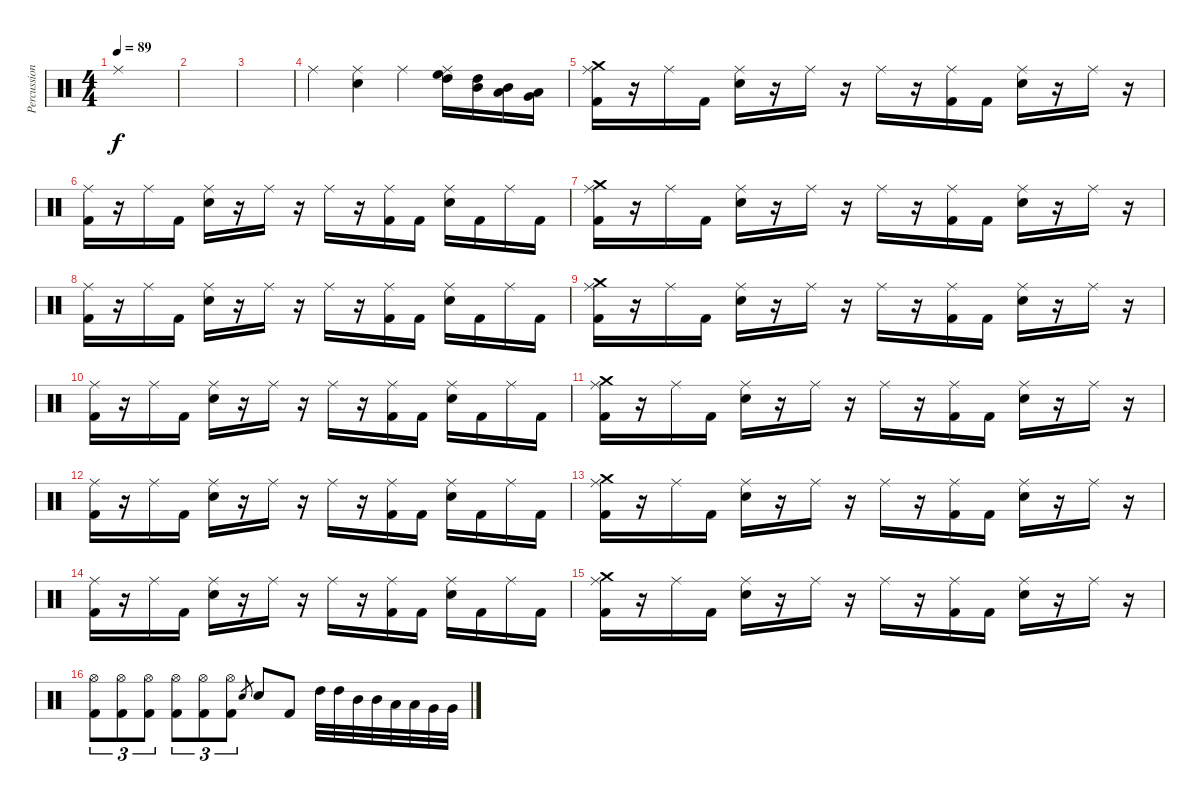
\track ("Percussions" "Percussion") {instrument percussion}
\staff {score}
\articulation defaults
\ts (4 4)
\tempo 89
\clef neutral
\ks c "Ride (middle)".1{dy f}
|
|
|
"Ride (middle)".4 ("Ride (middle)" "Snare (hit) 2").4 "Ride (middle)".4 ("Ride (middle)" "High Tom (hit)" "High Floor Tom (hit)").16 ("Mid Tom (hit)" "High Tom (hit)").16 ("Low Tom (hit)" "Mid Tom (hit)").16 ("Very Low Tom (hit)" "Low Tom (hit)").16 |
("Crash medium (hit)" "Ride (middle)" "Kick (hit) 2").16 r.16 "Ride (middle)".16 "Kick (hit) 2".16 ("Ride (middle)" "Snare (hit) 2").16 r.16 "Ride (middle)".16 r.16 "Ride (middle)".16 r.16 ("Ride (middle)" "Kick (hit) 2").16 "Kick (hit) 2".16 ("Ride (middle)" "Snare (hit) 2").16 r.16 "Ride (middle)".16 r.16 |
("Ride (middle)" "Kick (hit) 2").16 r.16 "Ride (middle)".16 "Kick (hit) 2".16 ("Ride (middle)" "Snare (hit) 2").16 r.16 "Ride (middle)".16 r.16 "Ride (middle)".16 r.16 ("Ride (middle)" "Kick (hit) 2").16 "Kick (hit) 2".16 ("Ride (middle)" "Snare (hit) 2").16 "Kick (hit) 2".16 "Ride (middle)".16 "Kick (hit) 2".16 |
("Crash medium (hit)" "Ride (middle)" "Kick (hit) 2").16 r.16 "Ride (middle)".16 "Kick (hit) 2".16 ("Ride (middle)" "Snare (hit) 2").16 r.16 "Ride (middle)".16 r.16 "Ride (middle)".16 r.16 ("Ride (middle)" "Kick (hit) 2").16 "Kick (hit) 2".16 ("Ride (middle)" "Snare (hit) 2").16 r.16 "Ride (middle)".16 r.16 |
("Ride (middle)" "Kick (hit) 2").16 r.16 "Ride (middle)".16 "Kick (hit) 2".16 ("Ride (middle)" "Snare (hit) 2").16 r.16 "Ride (middle)".16 r.16 "Ride (middle)".16 r.16 ("Ride (middle)" "Kick (hit) 2").16 "Kick (hit) 2".16 ("Ride (middle)" "Snare (hit) 2").16 "Kick (hit) 2".16 "Ride (middle)".16 "Kick (hit) 2".16 |
("Crash medium (hit)" "Ride (middle)" "Kick (hit) 2").16 r.16 "Ride (middle)".16 "Kick (hit) 2".16 ("Ride (middle)" "Snare (hit) 2").16 r.16 "Ride (middle)".16 r.16 "Ride (middle)".16 r.16 ("Ride (middle)" "Kick (hit) 2").16 "Kick (hit) 2".16 ("Ride (middle)" "Snare (hit) 2").16 r.16 "Ride (middle)".16 r.16 |
("Ride (middle)" "Kick (hit) 2").16 r.16 "Ride (middle)".16 "Kick (hit) 2".16 ("Ride (middle)" "Snare (hit) 2").16 r.16 "Ride (middle)".16 r.16 "Ride (middle)".16 r.16 ("Ride (middle)" "Kick (hit) 2").16 "Kick (hit) 2".16 ("Ride (middle)" "Snare (hit) 2").16 "Kick (hit) 2".16 "Ride (middle)".16 "Kick (hit) 2".16 |
("Crash medium (hit)" "Ride (middle)" "Kick (hit) 2").16 r.16 "Ride (middle)".16 "Kick (hit) 2".16 ("Ride (middle)" "Snare (hit) 2").16 r.16 "Ride (middle)".16 r.16 "Ride (middle)".16 r.16 ("Ride (middle)" "Kick (hit) 2").16 "Kick (hit) 2".16 ("Ride (middle)" "Snare (hit) 2").16 r.16 "Ride (middle)".16 r.16 |
("Ride (middle)" "Kick (hit) 2").16 r.16 "Ride (middle)".16 "Kick (hit) 2".16 ("Ride (middle)" "Snare (hit) 2").16 r.16 "Ride (middle)".16 r.16 "Ride (middle)".16 r.16 ("Ride (middle)" "Kick (hit) 2").16 "Kick (hit) 2".16 ("Ride (middle)" "Snare (hit) 2").16 "Kick (hit) 2".16 "Ride (middle)".16 "Kick (hit) 2".16 |
("Crash medium (hit)" "Ride (middle)" "Kick (hit) 2").16 r.16 "Ride (middle)".16 "Kick (hit) 2".16 ("Ride (middle)" "Snare (hit) 2").16 r.16 "Ride (middle)".16 r.16 "Ride (middle)".16 r.16 ("Ride (middle)" "Kick (hit) 2").16 "Kick (hit) 2".16 ("Ride (middle)" "Snare (hit) 2").16 r.16 "Ride (middle)".16 r.16 |
("Ride (middle)" "Kick (hit) 2").16 r.16 "Ride (middle)".16 "Kick (hit) 2".16 ("Ride (middle)" "Snare (hit) 2").16 r.16 "Ride (middle)".16 r.16 "Ride (middle)".16 r.16 ("Ride (middle)" "Kick (hit) 2").16 "Kick (hit) 2".16 ("Ride (middle)" "Snare (hit) 2").16 "Kick (hit) 2".16 "Ride (middle)".16 "Kick (hit) 2".16 |
("Crash medium (hit)" "Ride (middle)" "Kick (hit) 2").16 r.16 "Ride (middle)".16 "Kick (hit) 2".16 ("Ride (middle)" "Snare (hit) 2").16 r.16 "Ride (middle)".16 r.16 "Ride (middle)".16 r.16 ("Ride (middle)" "Kick (hit) 2").16 "Kick (hit) 2".16 ("Ride (middle)" "Snare (hit) 2").16 r.16 "Ride (middle)".16 r.16 |
("Hi-Hat (open)" "Kick (hit) 2").8{tu (3 2)} ("Hi-Hat (open)" "Kick (hit) 2").8{tu (3 2)} ("Hi-Hat (open)" "Kick (hit) 2").8{tu (3 2)} ("Hi-Hat (open)" "Kick (hit) 2").8{tu (3 2)} ("Hi-Hat (open)" "Kick (hit) 2").8{tu (3 2)} ("Hi-Hat (open)" "Kick (hit) 2").8{tu (3 2)} "Snare (hit) 2".8{gr} "Snare (hit) 2".8 "Kick (hit) 2".8 "High Tom (hit)".32 "High Tom (hit)".32 "Mid Tom (hit)".32 "Mid Tom (hit)".32 "Low Tom (hit)".32 "Low Tom (hit)".32 "Very Low Tom (hit)".32 "Very Low Tom (hit)".32
